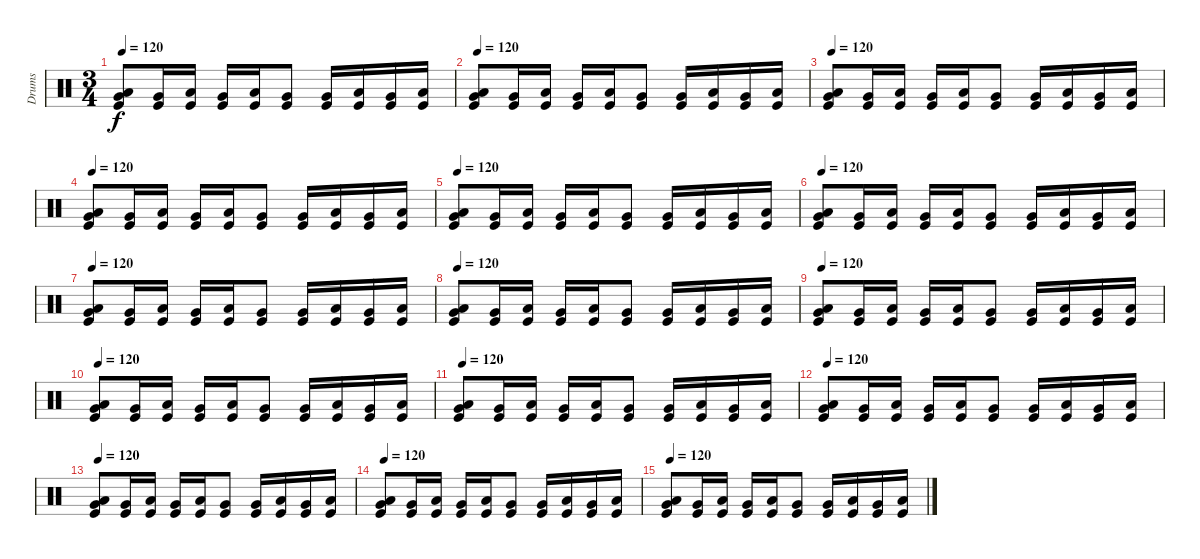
\track ("Drums" "Drums") {instrument percussion}
\staff {score}
\articulation defaults
\ts (3 4)
\tempo 120
\clef neutral
\ks c
("Very Low Tom (hit)" "Low Floor Tom (hit)" "Kick (hit)").8{dy f} ("Very Low Tom (hit)" "Kick (hit)").16 ("Low Floor Tom (hit)" "Kick (hit)").16 ("Very Low Tom (hit)" "Kick (hit)").16 ("Low Floor Tom (hit)" "Kick (hit)").16 ("Very Low Tom (hit)" "Kick (hit)").8 ("Very Low Tom (hit)" "Kick (hit)").16 ("Low Floor Tom (hit)" "Kick (hit)").16 ("Very Low Tom (hit)" "Kick (hit)").16 ("Low Floor Tom (hit)" "Kick (hit)").16 |
\tempo 120
("Very Low Tom (hit)" "Low Floor Tom (hit)" "Kick (hit)").8 ("Very Low Tom (hit)" "Kick (hit)").16 ("Low Floor Tom (hit)" "Kick (hit)").16 ("Very Low Tom (hit)" "Kick (hit)").16 ("Low Floor Tom (hit)" "Kick (hit)").16 ("Very Low Tom (hit)" "Kick (hit)").8 ("Very Low Tom (hit)" "Kick (hit)").16 ("Low Floor Tom (hit)" "Kick (hit)").16 ("Very Low Tom (hit)" "Kick (hit)").16 ("Low Floor Tom (hit)" "Kick (hit)").16 |
\tempo 120
("Very Low Tom (hit)" "Low Floor Tom (hit)" "Kick (hit)").8 ("Very Low Tom (hit)" "Kick (hit)").16 ("Low Floor Tom (hit)" "Kick (hit)").16 ("Very Low Tom (hit)" "Kick (hit)").16 ("Low Floor Tom (hit)" "Kick (hit)").16 ("Very Low Tom (hit)" "Kick (hit)").8 ("Very Low Tom (hit)" "Kick (hit)").16 ("Low Floor Tom (hit)" "Kick (hit)").16 ("Very Low Tom (hit)" "Kick (hit)").16 ("Low Floor Tom (hit)" "Kick (hit)").16 |
\tempo 120
("Very Low Tom (hit)" "Low Floor Tom (hit)" "Kick (hit)").8 ("Very Low Tom (hit)" "Kick (hit)").16 ("Low Floor Tom (hit)" "Kick (hit)").16 ("Very Low Tom (hit)" "Kick (hit)").16 ("Low Floor Tom (hit)" "Kick (hit)").16 ("Very Low Tom (hit)" "Kick (hit)").8 ("Very Low Tom (hit)" "Kick (hit)").16 ("Low Floor Tom (hit)" "Kick (hit)").16 ("Very Low Tom (hit)" "Kick (hit)").16 ("Low Floor Tom (hit)" "Kick (hit)").16 |
\tempo 120
("Very Low Tom (hit)" "Low Floor Tom (hit)" "Kick (hit)").8 ("Very Low Tom (hit)" "Kick (hit)").16 ("Low Floor Tom (hit)" "Kick (hit)").16 ("Very Low Tom (hit)" "Kick (hit)").16 ("Low Floor Tom (hit)" "Kick (hit)").16 ("Very Low Tom (hit)" "Kick (hit)").8 ("Very Low Tom (hit)" "Kick (hit)").16 ("Low Floor Tom (hit)" "Kick (hit)").16 ("Very Low Tom (hit)" "Kick (hit)").16 ("Low Floor Tom (hit)" "Kick (hit)").16 |
\tempo 120
("Very Low Tom (hit)" "Low Floor Tom (hit)" "Kick (hit)").8 ("Very Low Tom (hit)" "Kick (hit)").16 ("Low Floor Tom (hit)" "Kick (hit)").16 ("Very Low Tom (hit)" "Kick (hit)").16 ("Low Floor Tom (hit)" "Kick (hit)").16 ("Very Low Tom (hit)" "Kick (hit)").8 ("Very Low Tom (hit)" "Kick (hit)").16 ("Low Floor Tom (hit)" "Kick (hit)").16 ("Very Low Tom (hit)" "Kick (hit)").16 ("Low Floor Tom (hit)" "Kick (hit)").16 |
\tempo 120
("Very Low Tom (hit)" "Low Floor Tom (hit)" "Kick (hit)").8 ("Very Low Tom (hit)" "Kick (hit)").16 ("Low Floor Tom (hit)" "Kick (hit)").16 ("Very Low Tom (hit)" "Kick (hit)").16 ("Low Floor Tom (hit)" "Kick (hit)").16 ("Very Low Tom (hit)" "Kick (hit)").8 ("Very Low Tom (hit)" "Kick (hit)").16 ("Low Floor Tom (hit)" "Kick (hit)").16 ("Very Low Tom (hit)" "Kick (hit)").16 ("Low Floor Tom (hit)" "Kick (hit)").16 |
\tempo 120
("Very Low Tom (hit)" "Low Floor Tom (hit)" "Kick (hit)").8{volume 8} ("Very Low Tom (hit)" "Kick (hit)").16 ("Low Floor Tom (hit)" "Kick (hit)").16 ("Very Low Tom (hit)" "Kick (hit)").16 ("Low Floor Tom (hit)" "Kick (hit)").16 ("Very Low Tom (hit)" "Kick (hit)").8 ("Very Low Tom (hit)" "Kick (hit)").16 ("Low Floor Tom (hit)" "Kick (hit)").16 ("Very Low Tom (hit)" "Kick (hit)").16 ("Low Floor Tom (hit)" "Kick (hit)").16 |
\tempo 120
("Very Low Tom (hit)" "Low Floor Tom (hit)" "Kick (hit)").8 ("Very Low Tom (hit)" "Kick (hit)").16 ("Low Floor Tom (hit)" "Kick (hit)").16 ("Very Low Tom (hit)" "Kick (hit)").16 ("Low Floor Tom (hit)" "Kick (hit)").16 ("Very Low Tom (hit)" "Kick (hit)").8 ("Very Low Tom (hit)" "Kick (hit)").16 ("Low Floor Tom (hit)" "Kick (hit)").16 ("Very Low Tom (hit)" "Kick (hit)").16 ("Low Floor Tom (hit)" "Kick (hit)").16 |
\tempo 120
("Very Low Tom (hit)" "Low Floor Tom (hit)" "Kick (hit)").8 ("Very Low Tom (hit)" "Kick (hit)").16 ("Low Floor Tom (hit)" "Kick (hit)").16 ("Very Low Tom (hit)" "Kick (hit)").16 ("Low Floor Tom (hit)" "Kick (hit)").16 ("Very Low Tom (hit)" "Kick (hit)").8 ("Very Low Tom (hit)" "Kick (hit)").16 ("Low Floor Tom (hit)" "Kick (hit)").16 ("Very Low Tom (hit)" "Kick (hit)").16 ("Low Floor Tom (hit)" "Kick (hit)").16 |
\tempo 120
("Very Low Tom (hit)" "Low Floor Tom (hit)" "Kick (hit)").8 ("Very Low Tom (hit)" "Kick (hit)").16 ("Low Floor Tom (hit)" "Kick (hit)").16 ("Very Low Tom (hit)" "Kick (hit)").16 ("Low Floor Tom (hit)" "Kick (hit)").16 ("Very Low Tom (hit)" "Kick (hit)").8 ("Very Low Tom (hit)" "Kick (hit)").16 ("Low Floor Tom (hit)" "Kick (hit)").16 ("Very Low Tom (hit)" "Kick (hit)").16 ("Low Floor Tom (hit)" "Kick (hit)").16 |
\tempo 120
("Very Low Tom (hit)" "Low Floor Tom (hit)" "Kick (hit)").8{volume 0} ("Very Low Tom (hit)" "Kick (hit)").16 ("Low Floor Tom (hit)" "Kick (hit)").16 ("Very Low Tom (hit)" "Kick (hit)").16 ("Low Floor Tom (hit)" "Kick (hit)").16 ("Very Low Tom (hit)" "Kick (hit)").8 ("Very Low Tom (hit)" "Kick (hit)").16 ("Low Floor Tom (hit)" "Kick (hit)").16 ("Very Low Tom (hit)" "Kick (hit)").16 ("Low Floor Tom (hit)" "Kick (hit)").16 |
\tempo 120
("Very Low Tom (hit)" "Low Floor Tom (hit)" "Kick (hit)").8 ("Very Low Tom (hit)" "Kick (hit)").16 ("Low Floor Tom (hit)" "Kick (hit)").16 ("Very Low Tom (hit)" "Kick (hit)").16 ("Low Floor Tom (hit)" "Kick (hit)").16 ("Very Low Tom (hit)" "Kick (hit)").8 ("Very Low Tom (hit)" "Kick (hit)").16 ("Low Floor Tom (hit)" "Kick (hit)").16 ("Very Low Tom (hit)" "Kick (hit)").16 ("Low Floor Tom (hit)" "Kick (hit)").16 |
\tempo 120
("Very Low Tom (hit)" "Low Floor Tom (hit)" "Kick (hit)").8 ("Very Low Tom (hit)" "Kick (hit)").16 ("Low Floor Tom (hit)" "Kick (hit)").16 ("Very Low Tom (hit)" "Kick (hit)").16 ("Low Floor Tom (hit)" "Kick (hit)").16 ("Very Low Tom (hit)" "Kick (hit)").8 ("Very Low Tom (hit)" "Kick (hit)").16 ("Low Floor Tom (hit)" "Kick (hit)").16 ("Very Low Tom (hit)" "Kick (hit)").16 ("Low Floor Tom (hit)" "Kick (hit)").16 |
\tempo 120
("Very Low Tom (hit)" "Low Floor Tom (hit)" "Kick (hit)").8 ("Very Low Tom (hit)" "Kick (hit)").16 ("Low Floor Tom (hit)" "Kick (hit)").16 ("Very Low Tom (hit)" "Kick (hit)").16 ("Low Floor Tom (hit)" "Kick (hit)").16 ("Very Low Tom (hit)" "Kick (hit)").8 ("Very Low Tom (hit)" "Kick (hit)").16 ("Low Floor Tom (hit)" "Kick (hit)").16 ("Very Low Tom (hit)" "Kick (hit)").16 ("Low Floor Tom (hit)" "Kick (hit)").16
